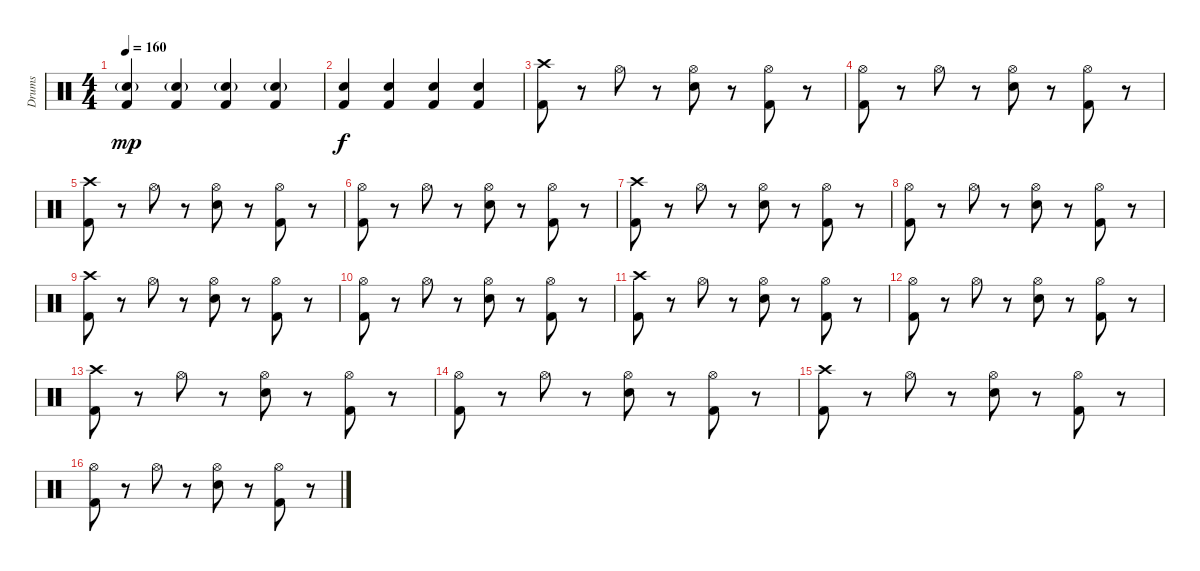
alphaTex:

\track ("Drums" "Drums") {instrument percussion}
\staff {score}
\articulation defaults
\ts (4 4)
\tempo 160
\clef neutral
\ks c
("Electric Snare (hit)"{g} "Kick (hit) 2").4{dy mp} ("Electric Snare (hit)"{g} "Kick (hit) 2").4 ("Electric Snare (hit)"{g} "Kick (hit) 2").4 ("Electric Snare (hit)"{g} "Kick (hit) 2").4 |
("Electric Snare (hit)" "Kick (hit) 2").4{dy f} ("Electric Snare (hit)" "Kick (hit) 2").4 ("Electric Snare (hit)" "Kick (hit) 2").4 ("Electric Snare (hit)" "Kick (hit) 2").4 |
("Crash high (hit)" "Kick (hit) 2").8 r.8 "Hi-Hat (open)".8 r.8 ("Hi-Hat (open)" "Electric Snare (hit)").8 r.8 ("Hi-Hat (open)" "Kick (hit) 2").8 r.8 |
("Hi-Hat (open)" "Kick (hit) 2").8 r.8 "Hi-Hat (open)".8 r.8 ("Hi-Hat (open)" "Electric Snare (hit)").8 r.8 ("Hi-Hat (open)" "Kick (hit) 2").8 r.8 |
("Crash high (hit)" "Kick (hit) 2").8 r.8 "Hi-Hat (open)".8 r.8 ("Hi-Hat (open)" "Electric Snare (hit)").8 r.8 ("Hi-Hat (open)" "Kick (hit) 2").8 r.8 |
("Hi-Hat (open)" "Kick (hit) 2").8 r.8 "Hi-Hat (open)".8 r.8 ("Hi-Hat (open)" "Electric Snare (hit)").8 r.8 ("Hi-Hat (open)" "Kick (hit) 2").8 r.8 |
("Crash high (hit)" "Kick (hit) 2").8 r.8 "Hi-Hat (open)".8 r.8 ("Hi-Hat (open)" "Electric Snare (hit)").8 r.8 ("Hi-Hat (open)" "Kick (hit) 2").8 r.8 |
("Hi-Hat (open)" "Kick (hit) 2").8 r.8 "Hi-Hat (open)".8 r.8 ("Hi-Hat (open)" "Electric Snare (hit)").8 r.8 ("Hi-Hat (open)" "Kick (hit) 2").8 r.8 |
("Crash high (hit)" "Kick (hit) 2").8 r.8 "Hi-Hat (open)".8 r.8 ("Hi-Hat (open)" "Electric Snare (hit)").8 r.8 ("Hi-Hat (open)" "Kick (hit) 2").8 r.8 |
("Hi-Hat (open)" "Kick (hit) 2").8 r.8 "Hi-Hat (open)".8 r.8 ("Hi-Hat (open)" "Electric Snare (hit)").8 r.8 ("Hi-Hat (open)" "Kick (hit) 2").8 r.8 |
("Crash high (hit)" "Kick (hit) 2").8 r.8 "Hi-Hat (open)".8 r.8 ("Hi-Hat (open)" "Electric Snare (hit)").8 r.8 ("Hi-Hat (open)" "Kick (hit) 2").8 r.8 |
("Hi-Hat (open)" "Kick (hit) 2").8 r.8 "Hi-Hat (open)".8 r.8 ("Hi-Hat (open)" "Electric Snare (hit)").8 r.8 ("Hi-Hat (open)" "Kick (hit) 2").8 r.8 |
("Crash high (hit)" "Kick (hit) 2").8 r.8 "Hi-Hat (open)".8 r.8 ("Hi-Hat (open)" "Electric Snare (hit)").8 r.8 ("Hi-Hat (open)" "Kick (hit) 2").8 r.8 |
("Hi-Hat (open)" "Kick (hit) 2").8 r.8 "Hi-Hat (open)".8 r.8 ("Hi-Hat (open)" "Electric Snare (hit)").8 r.8 ("Hi-Hat (open)" "Kick (hit) 2").8 r.8 |
("Crash high (hit)" "Kick (hit) 2").8 r.8 "Hi-Hat (open)".8 r.8 ("Hi-Hat (open)" "Electric Snare (hit)").8 r.8 ("Hi-Hat (open)" "Kick (hit) 2").8 r.8 |
("Hi-Hat (open)" "Kick (hit) 2").8 r.8 "Hi-Hat (open)".8 r.8 ("Hi-Hat (open)" "Electric Snare (hit)").8 r.8 ("Hi-Hat (open)" "Kick (hit) 2").8 r.8
